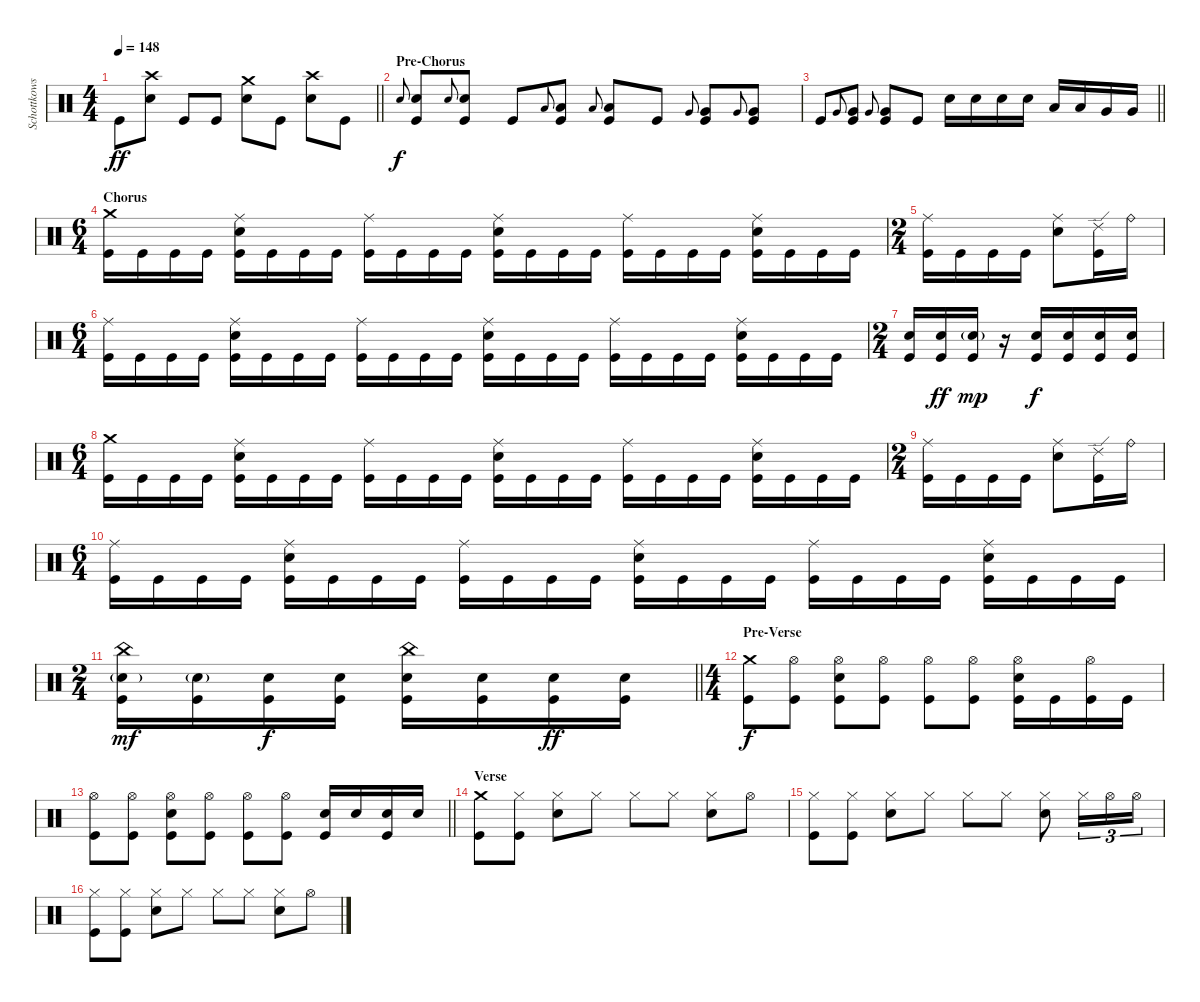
\track ("Schottkowski" "Schottkows") {instrument percussion}
\staff {score}
\articulation defaults
\ts (4 4)
\tempo 148
\clef neutral
\barLineRight lightlight
\ks c "Kick (hit)".8{dy ff}
("Crash high (hit)" "Electric Snare (hit)").8 "Kick (hit)".8 "Kick (hit)".8 ("Crash medium (hit)" "Electric Snare (hit)").8 "Kick (hit)".8 ("Crash high (hit)" "Electric Snare (hit)").8 "Kick (hit)".8 |
\section ("" "Pre-Chorus")
"Electric Snare (hit)".8{gr onbeat dy f} ("Electric Snare (hit)" "Kick (hit)").8 "Electric Snare (hit)".8{gr onbeat} ("Electric Snare (hit)" "Kick (hit)").8 "Kick (hit)".8 "Low Tom (hit)".8{gr onbeat} ("Low Tom (hit)" "Kick (hit)").8 "Low Tom (hit)".8{gr onbeat} ("Low Tom (hit)" "Kick (hit)").8 "Kick (hit)".8 "Very Low Tom (hit)".8{gr onbeat} ("Very Low Tom (hit)" "Kick (hit)").8 "Very Low Tom (hit)".8{gr onbeat} ("Very Low Tom (hit)" "Kick (hit)").8 |
\barLineRight lightlight "Kick (hit)".8 "Very Low Tom (hit)".8{gr onbeat}
("Very Low Tom (hit)" "Kick (hit)").8 "Very Low Tom (hit)".8{gr onbeat} ("Very Low Tom (hit)" "Kick (hit)").8 "Kick (hit)".8 "Electric Snare (hit)".16 "Electric Snare (hit)".16 "Electric Snare (hit)".16 "Electric Snare (hit)".16 "Low Tom (hit)".16 "Low Tom (hit)".16 "Very Low Tom (hit)".16 "Very Low Tom (hit)".16 |
\ts (6 4)
\section ("" "Chorus")
("Crash medium (hit)" "Kick (hit)").16 "Kick (hit)".16 "Kick (hit)".16 "Kick (hit)".16 ("Ride (middle)" "Electric Snare (hit)" "Kick (hit)").16 "Kick (hit)".16 "Kick (hit)".16 "Kick (hit)".16 ("Ride (middle)" "Kick (hit)").16 "Kick (hit)".16 "Kick (hit)".16 "Kick (hit)".16 ("Ride (middle)" "Electric Snare (hit)" "Kick (hit)").16 "Kick (hit)".16 "Kick (hit)".16 "Kick (hit)".16 ("Ride (middle)" "Kick (hit)").16 "Kick (hit)".16 "Kick (hit)".16 "Kick (hit)".16 ("Ride (middle)" "Electric Snare (hit)" "Kick (hit)").16 "Kick (hit)".16 "Kick (hit)".16 "Kick (hit)".16 |
\ts (2 4)
("Ride (middle)" "Kick (hit)").16 "Kick (hit)".16 "Kick (hit)".16 "Kick (hit)".16 ("Ride (middle)" "Electric Snare (hit)").8 ("Ride (edge) 2" "Kick (hit)").16 "Ride (bell)".16 |
\ts (6 4)
("Ride (middle)" "Kick (hit)").16 "Kick (hit)".16 "Kick (hit)".16 "Kick (hit)".16 ("Ride (middle)" "Electric Snare (hit)" "Kick (hit)").16 "Kick (hit)".16 "Kick (hit)".16 "Kick (hit)".16 ("Ride (middle)" "Kick (hit)").16 "Kick (hit)".16 "Kick (hit)".16 "Kick (hit)".16 ("Ride (middle)" "Electric Snare (hit)" "Kick (hit)").16 "Kick (hit)".16 "Kick (hit)".16 "Kick (hit)".16 ("Ride (middle)" "Kick (hit)").16 "Kick (hit)".16 "Kick (hit)".16 "Kick (hit)".16 ("Ride (middle)" "Electric Snare (hit)" "Kick (hit)").16 "Kick (hit)".16 "Kick (hit)".16 "Kick (hit)".16 |
\ts (2 4)
("Electric Snare (hit)" "Kick (hit)").16 ("Electric Snare (hit)" "Kick (hit)").16{dy ff} ("Electric Snare (hit)"{g} "Kick (hit)").16{dy mp} r.16 ("Electric Snare (hit)" "Kick (hit)").16{dy f} ("Electric Snare (hit)" "Kick (hit)").16 ("Electric Snare (hit)" "Kick (hit)").16 ("Electric Snare (hit)" "Kick (hit)").16 |
\ts (6 4)
("Crash medium (hit)" "Kick (hit)").16 "Kick (hit)".16 "Kick (hit)".16 "Kick (hit)".16 ("Ride (middle)" "Electric Snare (hit)" "Kick (hit)").16 "Kick (hit)".16 "Kick (hit)".16 "Kick (hit)".16 ("Ride (middle)" "Kick (hit)").16 "Kick (hit)".16 "Kick (hit)".16 "Kick (hit)".16 ("Ride (middle)" "Electric Snare (hit)" "Kick (hit)").16 "Kick (hit)".16 "Kick (hit)".16 "Kick (hit)".16 ("Ride (middle)" "Kick (hit)").16 "Kick (hit)".16 "Kick (hit)".16 "Kick (hit)".16 ("Ride (middle)" "Electric Snare (hit)" "Kick (hit)").16 "Kick (hit)".16 "Kick (hit)".16 "Kick (hit)".16 |
\ts (2 4)
("Ride (middle)" "Kick (hit)").16 "Kick (hit)".16 "Kick (hit)".16 "Kick (hit)".16 ("Ride (middle)" "Electric Snare (hit)").8 ("Ride (edge) 2" "Kick (hit)").16 "Ride (bell)".16 |
\ts (6 4)
("Ride (middle)" "Kick (hit)").16 "Kick (hit)".16 "Kick (hit)".16 "Kick (hit)".16 ("Ride (middle)" "Electric Snare (hit)" "Kick (hit)").16 "Kick (hit)".16 "Kick (hit)".16 "Kick (hit)".16 ("Ride (middle)" "Kick (hit)").16 "Kick (hit)".16 "Kick (hit)".16 "Kick (hit)".16 ("Ride (middle)" "Electric Snare (hit)" "Kick (hit)").16 "Kick (hit)".16 "Kick (hit)".16 "Kick (hit)".16 ("Ride (middle)" "Kick (hit)").16 "Kick (hit)".16 "Kick (hit)".16 "Kick (hit)".16 ("Ride (middle)" "Electric Snare (hit)" "Kick (hit)").16 "Kick (hit)".16 "Kick (hit)".16 "Kick (hit)".16 |
\ts (2 4)
\barLineRight lightlight
("China (hit)" "Electric Snare (hit)"{g} "Kick (hit)").16{dy mf} ("Electric Snare (hit)"{g} "Kick (hit)").16 ("Electric Snare (hit)" "Kick (hit)").16{dy f} ("Electric Snare (hit)" "Kick (hit)").16 ("China (hit)" "Electric Snare (hit)" "Kick (hit)").16 ("Electric Snare (hit)" "Kick (hit)").16 ("Electric Snare (hit)" "Kick (hit)").16{dy ff} ("Electric Snare (hit)" "Kick (hit)").16 |
\ts (4 4)
\section ("" "Pre-Verse")
("Crash medium (hit)" "Kick (hit)").8{dy f} ("Hi-Hat (open)" "Kick (hit)").8 ("Hi-Hat (open)" "Electric Snare (hit)" "Kick (hit)").8 ("Hi-Hat (open)" "Kick (hit)").8 ("Hi-Hat (open)" "Kick (hit)").8 ("Hi-Hat (open)" "Kick (hit)").8 ("Hi-Hat (open)" "Electric Snare (hit)" "Kick (hit)").16 "Kick (hit)".16 ("Hi-Hat (open)" "Kick (hit)").16 "Kick (hit)".16 |
\barLineRight lightlight
("Hi-Hat (open)" "Kick (hit)").8 ("Hi-Hat (open)" "Kick (hit)").8 ("Hi-Hat (open)" "Electric Snare (hit)" "Kick (hit)").8 ("Hi-Hat (open)" "Kick (hit)").8 ("Hi-Hat (open)" "Kick (hit)").8 ("Hi-Hat (open)" "Kick (hit)").8 ("Electric Snare (hit)" "Kick (hit)").16 "Electric Snare (hit)".16 ("Electric Snare (hit)" "Kick (hit)").16 "Electric Snare (hit)".16 |
\section ("" "Verse")
("Crash medium (hit)" "Kick (hit)").8 ("Hi-Hat (closed)" "Kick (hit)").8 ("Hi-Hat (closed)" "Electric Snare (hit)").8 "Hi-Hat (closed)".8 "Hi-Hat (closed)".8 "Hi-Hat (closed)".8 ("Hi-Hat (closed)" "Electric Snare (hit)").8 "Hi-Hat (open)".8 |
("Hi-Hat (closed)" "Kick (hit)").8 ("Hi-Hat (closed)" "Kick (hit)").8 ("Hi-Hat (closed)" "Electric Snare (hit)").8 "Hi-Hat (closed)".8 "Hi-Hat (closed)".8 "Hi-Hat (closed)".8 ("Hi-Hat (closed)" "Electric Snare (hit)").8 "Hi-Hat (closed)".16{tu (3 2)} "Hi-Hat (open)".16{tu (3 2)} "Hi-Hat (open)".16{tu (3 2)} |
("Hi-Hat (closed)" "Kick (hit)").8 ("Hi-Hat (closed)" "Kick (hit)").8 ("Hi-Hat (closed)" "Electric Snare (hit)").8 "Hi-Hat (closed)".8 "Hi-Hat (closed)".8 "Hi-Hat (closed)".8 ("Hi-Hat (closed)" "Electric Snare (hit)").8 "Hi-Hat (open)".8
